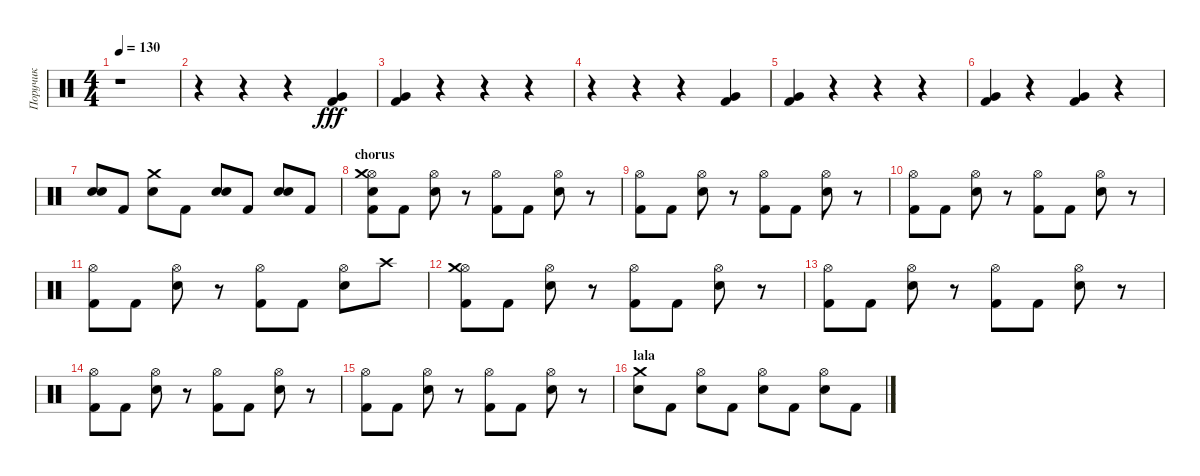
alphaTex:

\track ("Поручик" "Поручик") {instrument percussion}
\staff {score}
\articulation defaults
\ts (4 4)
\tempo 130
\clef neutral
\ks c
r.1{dy fff} |
r.4 r.4 r.4 ("Very Low Tom (hit)" "Kick (hit) 2").4 |
("Very Low Tom (hit)" "Kick (hit) 2").4 r.4 r.4 r.4 |
r.4 r.4 r.4 ("Very Low Tom (hit)" "Kick (hit) 2").4 |
("Very Low Tom (hit)" "Kick (hit) 2").4 r.4 r.4 r.4 |
("Very Low Tom (hit)" "Kick (hit) 2").4 r.4 ("Very Low Tom (hit)" "Kick (hit) 2").4 r.4 |
("Snare (hit) 2" "Snare (hit) 2").8{bd 480} "Kick (hit) 2".8 ("Snare (hit) 2" "Crash medium (hit)").8 "Kick (hit) 2".8 ("Snare (hit) 2" "Snare (hit) 2").8{bd 480} "Kick (hit) 2".8 ("Snare (hit) 2" "Snare (hit) 2").8{bd 480} "Kick (hit) 2".8 |
\section ("" "chorus")
("Kick (hit) 2" "Hi-Hat (open)" "Crash medium (hit)" "Snare (hit) 2").8 "Kick (hit) 2".8 ("Snare (hit) 2" "Hi-Hat (open)").8 r.8 ("Kick (hit) 2" "Hi-Hat (open)").8 "Kick (hit) 2".8 ("Snare (hit) 2" "Hi-Hat (open)").8 r.8 |
("Kick (hit) 2" "Hi-Hat (open)").8 "Kick (hit) 2".8 ("Snare (hit) 2" "Hi-Hat (open)").8 r.8 ("Kick (hit) 2" "Hi-Hat (open)").8 "Kick (hit) 2".8 ("Snare (hit) 2" "Hi-Hat (open)").8 r.8 |
("Kick (hit) 2" "Hi-Hat (open)").8 "Kick (hit) 2".8 ("Snare (hit) 2" "Hi-Hat (open)").8 r.8 ("Kick (hit) 2" "Hi-Hat (open)").8 "Kick (hit) 2".8 ("Snare (hit) 2" "Hi-Hat (open)").8 r.8 |
("Kick (hit) 2" "Hi-Hat (open)").8 "Kick (hit) 2".8 ("Snare (hit) 2" "Hi-Hat (open)").8 r.8 ("Kick (hit) 2" "Hi-Hat (open)").8 "Kick (hit) 2".8 ("Snare (hit) 2" "Hi-Hat (open)").8 "Crash high (hit)".8 |
("Kick (hit) 2" "Hi-Hat (open)" "Crash medium (hit)").8 "Kick (hit) 2".8 ("Snare (hit) 2" "Hi-Hat (open)").8 r.8 ("Kick (hit) 2" "Hi-Hat (open)").8 "Kick (hit) 2".8 ("Snare (hit) 2" "Hi-Hat (open)").8 r.8 |
("Kick (hit) 2" "Hi-Hat (open)").8 "Kick (hit) 2".8 ("Snare (hit) 2" "Hi-Hat (open)").8 r.8 ("Kick (hit) 2" "Hi-Hat (open)").8 "Kick (hit) 2".8 ("Snare (hit) 2" "Hi-Hat (open)").8 r.8 |
("Kick (hit) 2" "Hi-Hat (open)").8 "Kick (hit) 2".8 ("Snare (hit) 2" "Hi-Hat (open)").8 r.8 ("Kick (hit) 2" "Hi-Hat (open)").8 "Kick (hit) 2".8 ("Snare (hit) 2" "Hi-Hat (open)").8 r.8 |
("Kick (hit) 2" "Hi-Hat (open)").8 "Kick (hit) 2".8 ("Snare (hit) 2" "Hi-Hat (open)").8 r.8 ("Kick (hit) 2" "Hi-Hat (open)").8 "Kick (hit) 2".8 ("Snare (hit) 2" "Hi-Hat (open)").8 r.8 |
\section ("" "lala")
("Snare (hit) 2" "Crash medium (hit)").8 "Kick (hit) 2".8 ("Snare (hit) 2" "Hi-Hat (open)").8 "Kick (hit) 2".8 ("Snare (hit) 2" "Hi-Hat (open)").8 "Kick (hit) 2".8 ("Snare (hit) 2" "Hi-Hat (open)").8 "Kick (hit) 2".8
